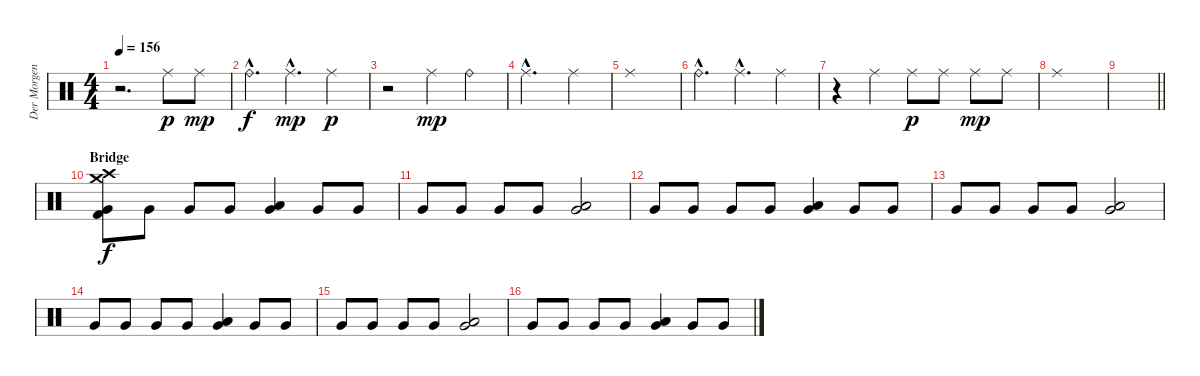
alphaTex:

\track ("Der Morgenstern" "Der Morgen") {instrument percussion}
\staff {score}
\articulation defaults
\ts (4 4)
\tempo 156
\clef neutral
\ks c
r.2{d dy mp} "Ride (middle)".8{dy p} "Ride (middle)".8{dy mp} |
"Ride (bell)"{hac}.4{d dy f} "Ride (middle)"{hac}.4{d dy mp} "Ride (middle)".4{dy p} |
r.2 "Ride (middle)".4{dy mp} "Ride (bell)".4 |
"Ride (middle)"{hac}.2{d} "Ride (middle)".4 |
"Ride (middle)".1 |
"Ride (bell)"{hac}.4{d} "Ride (middle)"{hac}.4{d} "Ride (middle)".4 |
r.4 "Ride (middle)".4 "Ride (middle)".8{dy p} "Ride (middle)".8 "Ride (middle)".8{dy mp} "Ride (middle)".8 |
"Ride (middle)".1 |
\barLineRight lightlight
|
\section ("" "Bridge")
("Crash high (hit)" "Crash medium (hit)" "Very Low Tom (hit)" "Kick (hit) 2").8{dy f} "Very Low Tom (hit)".8 "Very Low Tom (hit)".8 "Very Low Tom (hit)".8 ("Low Tom (hit)" "Very Low Tom (hit)").4 "Very Low Tom (hit)".8 "Very Low Tom (hit)".8 |
"Very Low Tom (hit)".8 "Very Low Tom (hit)".8 "Very Low Tom (hit)".8 "Very Low Tom (hit)".8 ("Low Tom (hit)" "Very Low Tom (hit)").2 |
"Very Low Tom (hit)".8 "Very Low Tom (hit)".8 "Very Low Tom (hit)".8 "Very Low Tom (hit)".8 ("Low Tom (hit)" "Very Low Tom (hit)").4 "Very Low Tom (hit)".8 "Very Low Tom (hit)".8 |
"Very Low Tom (hit)".8 "Very Low Tom (hit)".8 "Very Low Tom (hit)".8 "Very Low Tom (hit)".8 ("Low Tom (hit)" "Very Low Tom (hit)").2 |
"Very Low Tom (hit)".8 "Very Low Tom (hit)".8 "Very Low Tom (hit)".8 "Very Low Tom (hit)".8 ("Low Tom (hit)" "Very Low Tom (hit)").4 "Very Low Tom (hit)".8 "Very Low Tom (hit)".8 |
"Very Low Tom (hit)".8 "Very Low Tom (hit)".8 "Very Low Tom (hit)".8 "Very Low Tom (hit)".8 ("Low Tom (hit)" "Very Low Tom (hit)").2 |
"Very Low Tom (hit)".8 "Very Low Tom (hit)".8 "Very Low Tom (hit)".8 "Very Low Tom (hit)".8 ("Low Tom (hit)" "Very Low Tom (hit)").4 "Very Low Tom (hit)".8 "Very Low Tom (hit)".8
